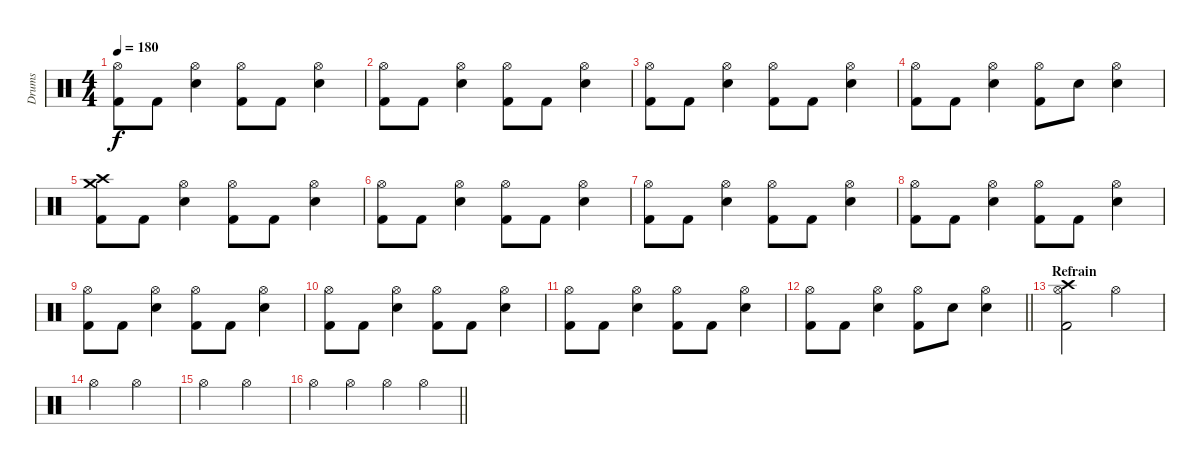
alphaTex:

\track ("Drums" "Drums") {instrument percussion}
\staff {score}
\articulation defaults
\ts (4 4)
\tempo 180
\clef neutral
\ks c
("Hi-Hat (open)" "Kick (hit) 2").8{dy f} "Kick (hit) 2".8 ("Electric Snare (hit)" "Hi-Hat (open)").4 ("Hi-Hat (open)" "Kick (hit) 2").8 "Kick (hit) 2".8 ("Electric Snare (hit)" "Hi-Hat (open)").4 |
("Hi-Hat (open)" "Kick (hit) 2").8 "Kick (hit) 2".8 ("Electric Snare (hit)" "Hi-Hat (open)").4 ("Hi-Hat (open)" "Kick (hit) 2").8 "Kick (hit) 2".8 ("Electric Snare (hit)" "Hi-Hat (open)").4 |
("Hi-Hat (open)" "Kick (hit) 2").8 "Kick (hit) 2".8 ("Electric Snare (hit)" "Hi-Hat (open)").4 ("Hi-Hat (open)" "Kick (hit) 2").8 "Kick (hit) 2".8 ("Electric Snare (hit)" "Hi-Hat (open)").4 |
("Hi-Hat (open)" "Kick (hit) 2").8 "Kick (hit) 2".8 ("Electric Snare (hit)" "Hi-Hat (open)").4 ("Hi-Hat (open)" "Kick (hit) 2").8 "Electric Snare (hit)".8 ("Electric Snare (hit)" "Hi-Hat (open)").4 |
("Crash high (hit)" "Crash medium (hit)" "Kick (hit) 2").8 "Kick (hit) 2".8 ("Electric Snare (hit)" "Hi-Hat (open)").4 ("Hi-Hat (open)" "Kick (hit) 2").8 "Kick (hit) 2".8 ("Electric Snare (hit)" "Hi-Hat (open)").4 |
("Hi-Hat (open)" "Kick (hit) 2").8 "Kick (hit) 2".8 ("Electric Snare (hit)" "Hi-Hat (open)").4 ("Hi-Hat (open)" "Kick (hit) 2").8 "Kick (hit) 2".8 ("Electric Snare (hit)" "Hi-Hat (open)").4 |
("Hi-Hat (open)" "Kick (hit) 2").8 "Kick (hit) 2".8 ("Electric Snare (hit)" "Hi-Hat (open)").4 ("Hi-Hat (open)" "Kick (hit) 2").8 "Kick (hit) 2".8 ("Electric Snare (hit)" "Hi-Hat (open)").4 |
("Hi-Hat (open)" "Kick (hit) 2").8 "Kick (hit) 2".8 ("Electric Snare (hit)" "Hi-Hat (open)").4 ("Hi-Hat (open)" "Kick (hit) 2").8 "Kick (hit) 2".8 ("Electric Snare (hit)" "Hi-Hat (open)").4 |
("Hi-Hat (open)" "Kick (hit) 2").8 "Kick (hit) 2".8 ("Electric Snare (hit)" "Hi-Hat (open)").4 ("Hi-Hat (open)" "Kick (hit) 2").8 "Kick (hit) 2".8 ("Electric Snare (hit)" "Hi-Hat (open)").4 |
("Hi-Hat (open)" "Kick (hit) 2").8 "Kick (hit) 2".8 ("Electric Snare (hit)" "Hi-Hat (open)").4 ("Hi-Hat (open)" "Kick (hit) 2").8 "Kick (hit) 2".8 ("Electric Snare (hit)" "Hi-Hat (open)").4 |
("Hi-Hat (open)" "Kick (hit) 2").8 "Kick (hit) 2".8 ("Electric Snare (hit)" "Hi-Hat (open)").4 ("Hi-Hat (open)" "Kick (hit) 2").8 "Kick (hit) 2".8 ("Electric Snare (hit)" "Hi-Hat (open)").4 |
\barLineRight lightlight
("Hi-Hat (open)" "Kick (hit) 2").8 "Kick (hit) 2".8 ("Electric Snare (hit)" "Hi-Hat (open)").4 ("Hi-Hat (open)" "Kick (hit) 2").8 "Electric Snare (hit)".8 ("Electric Snare (hit)" "Hi-Hat (open)").4 |
\section ("" "Refrain")
("Crash high (hit)" "Hi-Hat (open)" "Kick (hit) 2").2 "Hi-Hat (open)".2 |
"Hi-Hat (open)".2 "Hi-Hat (open)".2 |
"Hi-Hat (open)".2 "Hi-Hat (open)".2 |
\barLineRight lightlight "Hi-Hat (open)".4 "Hi-Hat (open)".4 "Hi-Hat (open)".4 "Hi-Hat (open)".4
